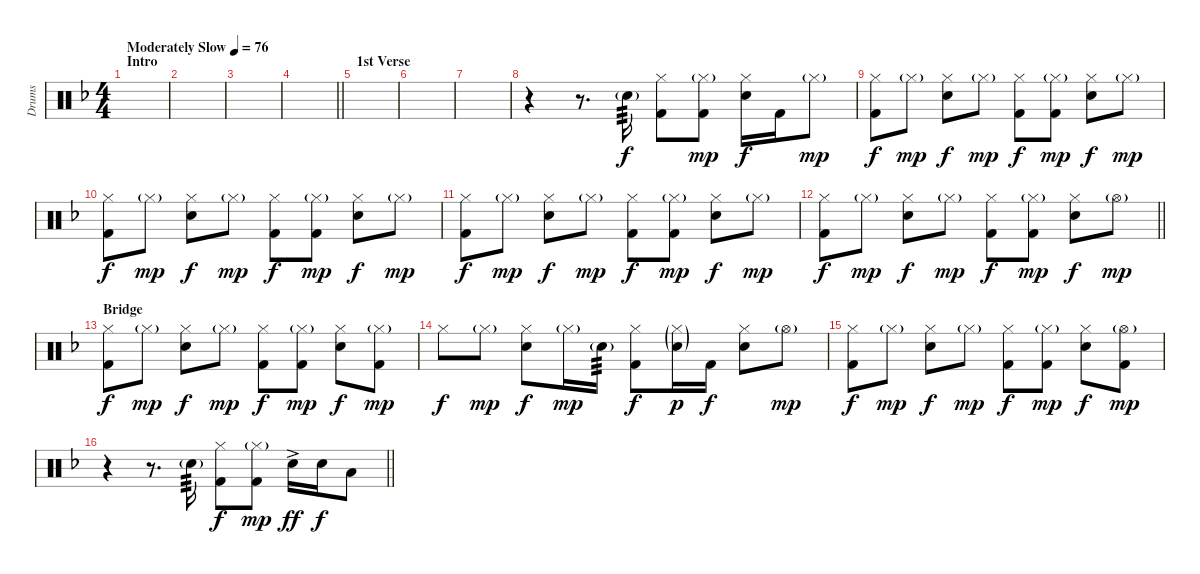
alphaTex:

\track ("Drums" "Drums") {instrument percussion}
\staff {score}
\articulation defaults
\ts (4 4)
\section ("" "Intro")
\tempo (76 "Moderately Slow")
\clef neutral
\ks f
|
|
|
\barLineRight lightlight
|
\section ("" "1st Verse")
|
|
|
r.4 r.8{d} "Snare (hit) 2"{g}.16{tp 3} ("Hi-Hat (closed)" "Kick (hit) 2").8{dy f} ("Hi-Hat (closed)"{g} "Kick (hit) 2").8{dy mp} ("Hi-Hat (closed)" "Snare (hit) 2").16{dy f} "Kick (hit) 2".16 "Hi-Hat (closed)"{g}.8{dy mp} |
("Hi-Hat (closed)" "Kick (hit) 2").8{dy f} "Hi-Hat (closed)"{g}.8{dy mp} ("Hi-Hat (closed)" "Snare (hit) 2").8{dy f} "Hi-Hat (closed)"{g}.8{dy mp} ("Hi-Hat (closed)" "Kick (hit) 2").8{dy f} ("Hi-Hat (closed)"{g} "Kick (hit) 2").8{dy mp} ("Hi-Hat (closed)" "Snare (hit) 2").8{dy f} "Hi-Hat (closed)"{g}.8{dy mp} |
("Hi-Hat (closed)" "Kick (hit) 2").8{dy f} "Hi-Hat (closed)"{g}.8{dy mp} ("Hi-Hat (closed)" "Snare (hit) 2").8{dy f} "Hi-Hat (closed)"{g}.8{dy mp} ("Hi-Hat (closed)" "Kick (hit) 2").8{dy f} ("Hi-Hat (closed)"{g} "Kick (hit) 2").8{dy mp} ("Hi-Hat (closed)" "Snare (hit) 2").8{dy f} "Hi-Hat (closed)"{g}.8{dy mp} |
("Hi-Hat (closed)" "Kick (hit) 2").8{dy f} "Hi-Hat (closed)"{g}.8{dy mp} ("Hi-Hat (closed)" "Snare (hit) 2").8{dy f} "Hi-Hat (closed)"{g}.8{dy mp} ("Hi-Hat (closed)" "Kick (hit) 2").8{dy f} ("Hi-Hat (closed)"{g} "Kick (hit) 2").8{dy mp} ("Hi-Hat (closed)" "Snare (hit) 2").8{dy f} "Hi-Hat (closed)"{g}.8{dy mp} |
\barLineRight lightlight
("Hi-Hat (closed)" "Kick (hit) 2").8{dy f} "Hi-Hat (closed)"{g}.8{dy mp} ("Hi-Hat (closed)" "Snare (hit) 2").8{dy f} "Hi-Hat (closed)"{g}.8{dy mp} ("Hi-Hat (closed)" "Kick (hit) 2").8{dy f} ("Hi-Hat (closed)"{g} "Kick (hit) 2").8{dy mp} ("Hi-Hat (closed)" "Snare (hit) 2").8{dy f} "Hi-Hat (open)"{g}.8{dy mp} |
\section ("" "Bridge")
("Hi-Hat (closed)" "Kick (hit) 2").8{dy f} "Hi-Hat (closed)"{g}.8{dy mp} ("Hi-Hat (closed)" "Snare (hit) 2").8{dy f} "Hi-Hat (closed)"{g}.8{dy mp} ("Hi-Hat (closed)" "Kick (hit) 2").8{dy f} ("Hi-Hat (closed)"{g} "Kick (hit) 2").8{dy mp} ("Hi-Hat (closed)" "Snare (hit) 2").8{dy f} ("Hi-Hat (closed)"{g} "Kick (hit) 2").8{dy mp} |
"Hi-Hat (closed)".8{dy f} "Hi-Hat (closed)"{g}.8{dy mp} ("Hi-Hat (closed)" "Snare (hit) 2").8{dy f} "Hi-Hat (closed)"{g}.16{dy mp} "Snare (hit) 2"{g}.16{tp 3} ("Hi-Hat (closed)" "Kick (hit) 2").8{dy f} ("Hi-Hat (closed)"{g} "Snare (hit) 2"{g}).16{dy p} "Kick (hit) 2".16{dy f} ("Hi-Hat (closed)" "Snare (hit) 2").8 "Hi-Hat (open)"{g}.8{dy mp} |
("Hi-Hat (closed)" "Kick (hit) 2").8{dy f} "Hi-Hat (closed)"{g}.8{dy mp} ("Hi-Hat (closed)" "Snare (hit) 2").8{dy f} "Hi-Hat (closed)"{g}.8{dy mp} ("Hi-Hat (closed)" "Kick (hit) 2").8{dy f} ("Hi-Hat (closed)"{g} "Kick (hit) 2").8{dy mp} ("Hi-Hat (closed)" "Snare (hit) 2").8{dy f} ("Hi-Hat (open)"{g} "Kick (hit) 2").8{dy mp} |
\barLineRight lightlight
r.4 r.8{d} "Snare (hit) 2"{g}.16{tp 3} ("Hi-Hat (closed)" "Kick (hit) 2").8{dy f} ("Hi-Hat (closed)"{g} "Kick (hit) 2").8{dy mp} "Snare (hit) 2"{ac}.16{dy ff} "Snare (hit) 2".16{dy f} "Low Tom (hit)".8
